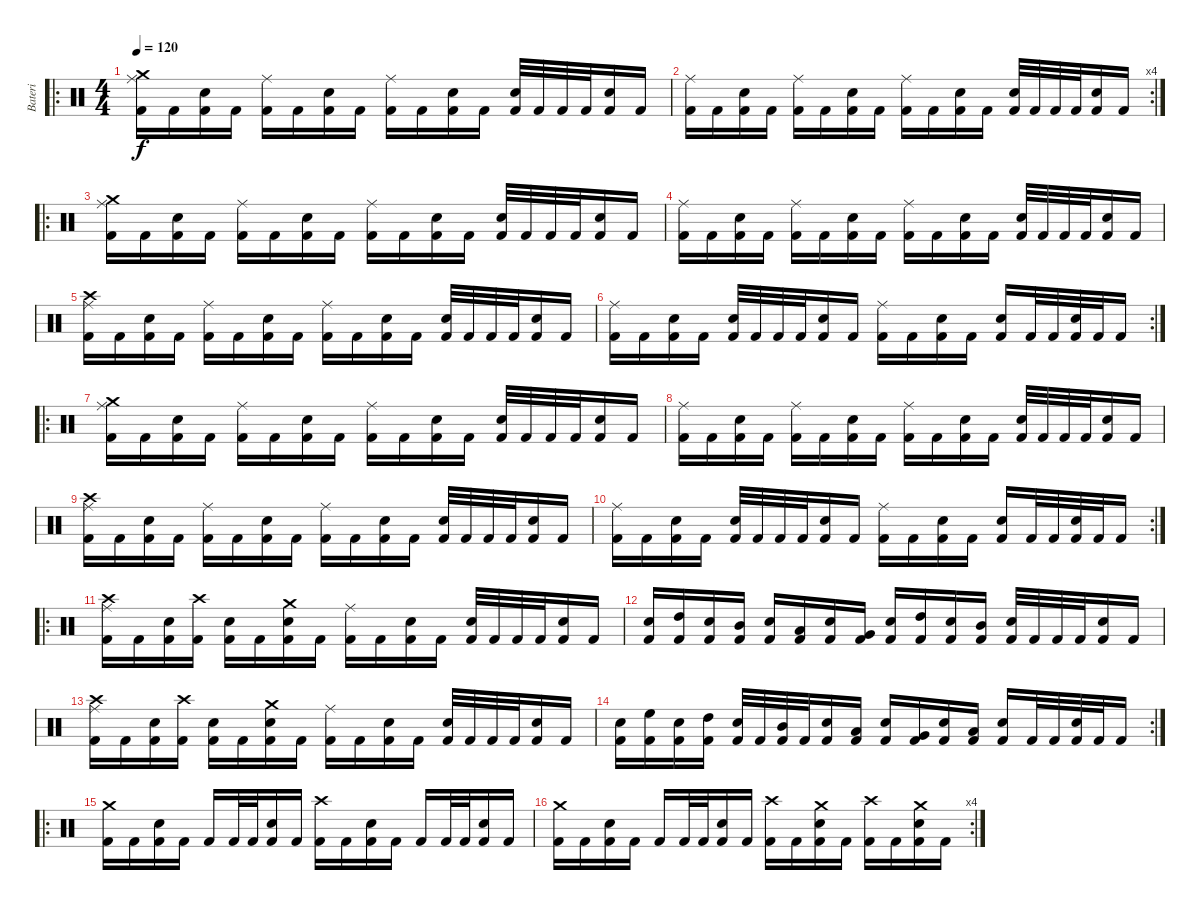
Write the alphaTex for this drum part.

\track ("Bateri" "Bateri") {instrument percussion}
\staff {score}
\articulation defaults
\ro
\ts (4 4)
\tempo 120
\clef neutral
\ks c
("Crash medium (hit)" "Ride (middle)" "Kick (hit) 2").16{dy f} "Kick (hit) 2".16 ("Snare (hit) 2" "Kick (hit) 2").16 "Kick (hit) 2".16 ("Ride (middle)" "Kick (hit) 2").16 "Kick (hit) 2".16 ("Snare (hit) 2" "Kick (hit) 2").16 "Kick (hit) 2".16 ("Ride (middle)" "Kick (hit) 2").16 "Kick (hit) 2".16 ("Snare (hit) 2" "Kick (hit) 2").16 "Kick (hit) 2".16 ("Snare (hit) 2" "Kick (hit) 2").32 "Kick (hit) 2".32 "Kick (hit) 2".32 "Kick (hit) 2".32 ("Snare (hit) 2" "Kick (hit) 2").16 "Kick (hit) 2".16 |
\rc 4
("Ride (middle)" "Kick (hit) 2").16 "Kick (hit) 2".16 ("Snare (hit) 2" "Kick (hit) 2").16 "Kick (hit) 2".16 ("Ride (middle)" "Kick (hit) 2").16 "Kick (hit) 2".16 ("Snare (hit) 2" "Kick (hit) 2").16 "Kick (hit) 2".16 ("Ride (middle)" "Kick (hit) 2").16 "Kick (hit) 2".16 ("Snare (hit) 2" "Kick (hit) 2").16 "Kick (hit) 2".16 ("Snare (hit) 2" "Kick (hit) 2").32 "Kick (hit) 2".32 "Kick (hit) 2".32 "Kick (hit) 2".32 ("Snare (hit) 2" "Kick (hit) 2").16 "Kick (hit) 2".16 |
\ro
("Crash medium (hit)" "Ride (middle)" "Kick (hit) 2").16 "Kick (hit) 2".16 ("Snare (hit) 2" "Kick (hit) 2").16 "Kick (hit) 2".16 ("Ride (middle)" "Kick (hit) 2").16 "Kick (hit) 2".16 ("Snare (hit) 2" "Kick (hit) 2").16 "Kick (hit) 2".16 ("Ride (middle)" "Kick (hit) 2").16 "Kick (hit) 2".16 ("Snare (hit) 2" "Kick (hit) 2").16 "Kick (hit) 2".16 ("Snare (hit) 2" "Kick (hit) 2").32 "Kick (hit) 2".32 "Kick (hit) 2".32 "Kick (hit) 2".32 ("Snare (hit) 2" "Kick (hit) 2").16 "Kick (hit) 2".16 |
("Ride (middle)" "Kick (hit) 2").16 "Kick (hit) 2".16 ("Snare (hit) 2" "Kick (hit) 2").16 "Kick (hit) 2".16 ("Ride (middle)" "Kick (hit) 2").16 "Kick (hit) 2".16 ("Snare (hit) 2" "Kick (hit) 2").16 "Kick (hit) 2".16 ("Ride (middle)" "Kick (hit) 2").16 "Kick (hit) 2".16 ("Snare (hit) 2" "Kick (hit) 2").16 "Kick (hit) 2".16 ("Snare (hit) 2" "Kick (hit) 2").32 "Kick (hit) 2".32 "Kick (hit) 2".32 "Kick (hit) 2".32 ("Snare (hit) 2" "Kick (hit) 2").16 "Kick (hit) 2".16 |
("Crash high (hit)" "Ride (middle)" "Kick (hit) 2").16 "Kick (hit) 2".16 ("Snare (hit) 2" "Kick (hit) 2").16 "Kick (hit) 2".16 ("Ride (middle)" "Kick (hit) 2").16 "Kick (hit) 2".16 ("Snare (hit) 2" "Kick (hit) 2").16 "Kick (hit) 2".16 ("Ride (middle)" "Kick (hit) 2").16 "Kick (hit) 2".16 ("Snare (hit) 2" "Kick (hit) 2").16 "Kick (hit) 2".16 ("Snare (hit) 2" "Kick (hit) 2").32 "Kick (hit) 2".32 "Kick (hit) 2".32 "Kick (hit) 2".32 ("Snare (hit) 2" "Kick (hit) 2").16 "Kick (hit) 2".16 |
\rc 2
("Ride (middle)" "Kick (hit) 2").16 "Kick (hit) 2".16 ("Snare (hit) 2" "Kick (hit) 2").16 "Kick (hit) 2".16 ("Snare (hit) 2" "Kick (hit) 2").32 "Kick (hit) 2".32 "Kick (hit) 2".32 "Kick (hit) 2".32 ("Snare (hit) 2" "Kick (hit) 2").16 "Kick (hit) 2".16 ("Ride (middle)" "Kick (hit) 2").16 "Kick (hit) 2".16 ("Snare (hit) 2" "Kick (hit) 2").16 "Kick (hit) 2".16 ("Snare (hit) 2" "Kick (hit) 2").16 "Kick (hit) 2".32 "Kick (hit) 2".32 ("Snare (hit) 2" "Kick (hit) 2").32 "Kick (hit) 2".32 "Kick (hit) 2".16 |
\ro
("Crash medium (hit)" "Ride (middle)" "Kick (hit) 2").16 "Kick (hit) 2".16 ("Snare (hit) 2" "Kick (hit) 2").16 "Kick (hit) 2".16 ("Ride (middle)" "Kick (hit) 2").16 "Kick (hit) 2".16 ("Snare (hit) 2" "Kick (hit) 2").16 "Kick (hit) 2".16 ("Ride (middle)" "Kick (hit) 2").16 "Kick (hit) 2".16 ("Snare (hit) 2" "Kick (hit) 2").16 "Kick (hit) 2".16 ("Snare (hit) 2" "Kick (hit) 2").32 "Kick (hit) 2".32 "Kick (hit) 2".32 "Kick (hit) 2".32 ("Snare (hit) 2" "Kick (hit) 2").16 "Kick (hit) 2".16 |
("Ride (middle)" "Kick (hit) 2").16 "Kick (hit) 2".16 ("Snare (hit) 2" "Kick (hit) 2").16 "Kick (hit) 2".16 ("Ride (middle)" "Kick (hit) 2").16 "Kick (hit) 2".16 ("Snare (hit) 2" "Kick (hit) 2").16 "Kick (hit) 2".16 ("Ride (middle)" "Kick (hit) 2").16 "Kick (hit) 2".16 ("Snare (hit) 2" "Kick (hit) 2").16 "Kick (hit) 2".16 ("Snare (hit) 2" "Kick (hit) 2").32 "Kick (hit) 2".32 "Kick (hit) 2".32 "Kick (hit) 2".32 ("Snare (hit) 2" "Kick (hit) 2").16 "Kick (hit) 2".16 |
("Crash high (hit)" "Ride (middle)" "Kick (hit) 2").16 "Kick (hit) 2".16 ("Snare (hit) 2" "Kick (hit) 2").16 "Kick (hit) 2".16 ("Ride (middle)" "Kick (hit) 2").16 "Kick (hit) 2".16 ("Snare (hit) 2" "Kick (hit) 2").16 "Kick (hit) 2".16 ("Ride (middle)" "Kick (hit) 2").16 "Kick (hit) 2".16 ("Snare (hit) 2" "Kick (hit) 2").16 "Kick (hit) 2".16 ("Snare (hit) 2" "Kick (hit) 2").32 "Kick (hit) 2".32 "Kick (hit) 2".32 "Kick (hit) 2".32 ("Snare (hit) 2" "Kick (hit) 2").16 "Kick (hit) 2".16 |
\rc 2
("Ride (middle)" "Kick (hit) 2").16 "Kick (hit) 2".16 ("Snare (hit) 2" "Kick (hit) 2").16 "Kick (hit) 2".16 ("Snare (hit) 2" "Kick (hit) 2").32 "Kick (hit) 2".32 "Kick (hit) 2".32 "Kick (hit) 2".32 ("Snare (hit) 2" "Kick (hit) 2").16 "Kick (hit) 2".16 ("Ride (middle)" "Kick (hit) 2").16 "Kick (hit) 2".16 ("Snare (hit) 2" "Kick (hit) 2").16 "Kick (hit) 2".16 ("Snare (hit) 2" "Kick (hit) 2").16 "Kick (hit) 2".32 "Kick (hit) 2".32 ("Snare (hit) 2" "Kick (hit) 2").32 "Kick (hit) 2".32 "Kick (hit) 2".16 |
\ro
("Crash high (hit)" "Ride (middle)" "Kick (hit) 2").16 "Kick (hit) 2".16 ("Snare (hit) 2" "Kick (hit) 2").16 ("Crash high (hit)" "Kick (hit) 2").16 ("Snare (hit) 2" "Kick (hit) 2").16 "Kick (hit) 2".16 ("Crash medium (hit)" "Snare (hit) 2" "Kick (hit) 2").16 "Kick (hit) 2".16 ("Ride (middle)" "Kick (hit) 2").16 "Kick (hit) 2".16 ("Snare (hit) 2" "Kick (hit) 2").16 "Kick (hit) 2".16 ("Snare (hit) 2" "Kick (hit) 2").32 "Kick (hit) 2".32 "Kick (hit) 2".32 "Kick (hit) 2".32 ("Snare (hit) 2" "Kick (hit) 2").16 "Kick (hit) 2".16 |
("Snare (hit) 2" "Kick (hit) 2").16 ("High Tom (hit)" "Kick (hit) 2").16 ("Snare (hit) 2" "Kick (hit) 2").16 ("Mid Tom (hit)" "Kick (hit) 2").16 ("Snare (hit) 2" "Kick (hit) 2").16 ("Low Tom (hit)" "Kick (hit) 2").16 ("Snare (hit) 2" "Kick (hit) 2").16 ("Very Low Tom (hit)" "Kick (hit) 2").16 ("Snare (hit) 2" "Kick (hit) 2").16 ("High Tom (hit)" "Kick (hit) 2").16 ("Snare (hit) 2" "Kick (hit) 2").16 ("Mid Tom (hit)" "Kick (hit) 2").16 ("Snare (hit) 2" "Kick (hit) 2").32 "Kick (hit) 2".32 "Kick (hit) 2".32 "Kick (hit) 2".32 ("Snare (hit) 2" "Kick (hit) 2").16 "Kick (hit) 2".16 |
("Crash high (hit)" "Ride (middle)" "Kick (hit) 2").16 "Kick (hit) 2".16 ("Snare (hit) 2" "Kick (hit) 2").16 ("Crash high (hit)" "Kick (hit) 2").16 ("Snare (hit) 2" "Kick (hit) 2").16 "Kick (hit) 2".16 ("Crash medium (hit)" "Snare (hit) 2" "Kick (hit) 2").16 "Kick (hit) 2".16 ("Ride (middle)" "Kick (hit) 2").16 "Kick (hit) 2".16 ("Snare (hit) 2" "Kick (hit) 2").16 "Kick (hit) 2".16 ("Snare (hit) 2" "Kick (hit) 2").32 "Kick (hit) 2".32 "Kick (hit) 2".32 "Kick (hit) 2".32 ("Snare (hit) 2" "Kick (hit) 2").16 "Kick (hit) 2".16 |
\rc 2
("Snare (hit) 2" "Kick (hit) 2").16 ("High Floor Tom (hit)" "Kick (hit) 2").16 ("Snare (hit) 2" "Kick (hit) 2").16 ("High Tom (hit)" "Kick (hit) 2").16 ("Snare (hit) 2" "Kick (hit) 2").32 "Kick (hit) 2".32 ("Mid Tom (hit)" "Kick (hit) 2").32 "Kick (hit) 2".32 ("Snare (hit) 2" "Kick (hit) 2").16 ("Low Tom (hit)" "Kick (hit) 2").16 ("Snare (hit) 2" "Kick (hit) 2").16 ("Very Low Tom (hit)" "Kick (hit) 2").16 ("Snare (hit) 2" "Kick (hit) 2").16 ("Low Floor Tom (hit)" "Kick (hit) 2").16 ("Snare (hit) 2" "Kick (hit) 2").16 "Kick (hit) 2".32 "Kick (hit) 2".32 ("Snare (hit) 2" "Kick (hit) 2").32 "Kick (hit) 2".32 "Kick (hit) 2".16 |
\ro
("Crash medium (hit)" "Kick (hit) 2").16 "Kick (hit) 2".16 ("Snare (hit) 2" "Kick (hit) 2").16 "Kick (hit) 2".16 "Kick (hit) 2".16 "Kick (hit) 2".32 "Kick (hit) 2".32 ("Snare (hit) 2" "Kick (hit) 2").16 "Kick (hit) 2".16 ("Crash high (hit)" "Kick (hit) 2").16 "Kick (hit) 2".16 ("Snare (hit) 2" "Kick (hit) 2").16 "Kick (hit) 2".16 "Kick (hit) 2".16 "Kick (hit) 2".32 "Kick (hit) 2".32 ("Snare (hit) 2" "Kick (hit) 2").16 "Kick (hit) 2".16 |
\rc 4
("Crash medium (hit)" "Kick (hit) 2").16 "Kick (hit) 2".16 ("Snare (hit) 2" "Kick (hit) 2").16 "Kick (hit) 2".16 "Kick (hit) 2".16 "Kick (hit) 2".32 "Kick (hit) 2".32 ("Snare (hit) 2" "Kick (hit) 2").16 "Kick (hit) 2".16 ("Crash high (hit)" "Kick (hit) 2").16 "Kick (hit) 2".16 ("Crash medium (hit)" "Snare (hit) 2" "Kick (hit) 2").16 "Kick (hit) 2".16 ("Crash high (hit)" "Kick (hit) 2").16 "Kick (hit) 2".16 ("Crash medium (hit)" "Snare (hit) 2" "Kick (hit) 2").16 "Kick (hit) 2".16
